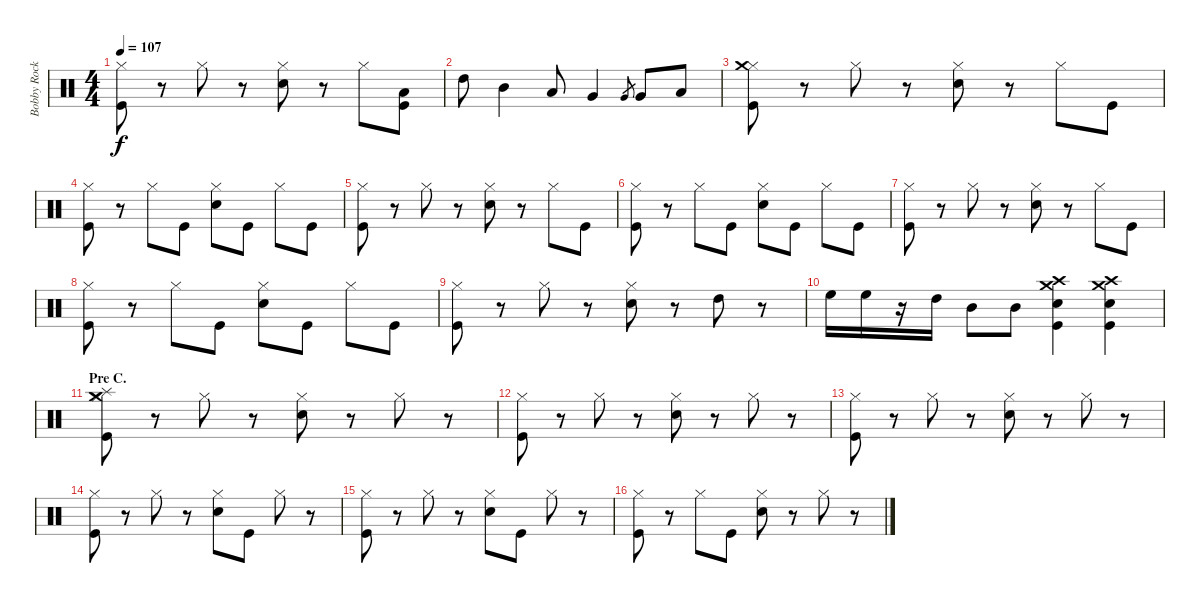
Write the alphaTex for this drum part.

\track ("Bobby Rock - drums" "Bobby Rock") {instrument percussion}
\staff {score}
\articulation defaults
\ts (4 4)
\tempo 107
\clef neutral
\ks c
("Hi-Hat (closed)" "Kick (hit)").8{dy f} r.8 "Hi-Hat (closed)".8 r.8 ("Hi-Hat (closed)" "Snare (hit) 2").8 r.8 "Hi-Hat (closed)".8 ("Low Tom (hit)" "Kick (hit)").8 |
"High Tom (hit)".8 "Mid Tom (hit)".4 "Low Tom (hit)".8 "Very Low Tom (hit)".4 "Very Low Tom (hit)".8{gr} "Very Low Tom (hit)".8 "Low Floor Tom (hit)".8 |
("Hi-Hat (closed)" "Crash medium (hit)" "Kick (hit)").8 r.8 "Hi-Hat (closed)".8 r.8 ("Hi-Hat (closed)" "Snare (hit) 2").8 r.8 "Hi-Hat (closed)".8 "Kick (hit)".8 |
("Hi-Hat (closed)" "Kick (hit)").8 r.8 "Hi-Hat (closed)".8 "Kick (hit)".8 ("Hi-Hat (closed)" "Snare (hit) 2").8 "Kick (hit)".8 "Hi-Hat (closed)".8 "Kick (hit)".8 |
("Hi-Hat (closed)" "Kick (hit)").8 r.8 "Hi-Hat (closed)".8 r.8 ("Hi-Hat (closed)" "Snare (hit) 2").8 r.8 "Hi-Hat (closed)".8 "Kick (hit)".8 |
("Hi-Hat (closed)" "Kick (hit)").8 r.8 "Hi-Hat (closed)".8 "Kick (hit)".8 ("Hi-Hat (closed)" "Snare (hit) 2").8 "Kick (hit)".8 "Hi-Hat (closed)".8 "Kick (hit)".8 |
("Hi-Hat (closed)" "Kick (hit)").8 r.8 "Hi-Hat (closed)".8 r.8 ("Hi-Hat (closed)" "Snare (hit) 2").8 r.8 "Hi-Hat (closed)".8 "Kick (hit)".8 |
("Hi-Hat (closed)" "Kick (hit)").8 r.8 "Hi-Hat (closed)".8 "Kick (hit)".8 ("Hi-Hat (closed)" "Snare (hit) 2").8 "Kick (hit)".8 "Hi-Hat (closed)".8 "Kick (hit)".8 |
("Hi-Hat (closed)" "Kick (hit)").8 r.8 "Hi-Hat (closed)".8 r.8 ("Hi-Hat (closed)" "Snare (hit) 2").8 r.8 "High Tom (hit)".8 r.8 |
"High Floor Tom (hit)".16 "High Floor Tom (hit)".16 r.16 "High Tom (hit)".16 "Mid Tom (hit)".8 "Mid Tom (hit)".8 ("Crash high (hit)" "Crash medium (hit)" "Snare (hit) 2" "Kick (hit)").4 ("Crash medium (hit)" "Crash high (hit)" "Snare (hit) 2" "Kick (hit)").4 |
\section ("" "Pre C.")
("Hi-Hat (closed)" "Splash (hit)" "Crash medium (hit)" "Kick (hit)").8 r.8 "Hi-Hat (closed)".8 r.8 ("Hi-Hat (closed)" "Snare (hit) 2").8 r.8 "Hi-Hat (closed)".8 r.8 |
("Hi-Hat (closed)" "Kick (hit)").8 r.8 "Hi-Hat (closed)".8 r.8 ("Hi-Hat (closed)" "Snare (hit) 2").8 r.8 "Hi-Hat (closed)".8 r.8 |
("Hi-Hat (closed)" "Kick (hit)").8 r.8 "Hi-Hat (closed)".8 r.8 ("Hi-Hat (closed)" "Snare (hit) 2").8 r.8 "Hi-Hat (closed)".8 r.8 |
("Hi-Hat (closed)" "Kick (hit)").8 r.8 "Hi-Hat (closed)".8 r.8 ("Hi-Hat (closed)" "Snare (hit) 2").8 "Kick (hit)".8 "Hi-Hat (closed)".8 r.8 |
("Hi-Hat (closed)" "Kick (hit)").8 r.8 "Hi-Hat (closed)".8 r.8 ("Hi-Hat (closed)" "Snare (hit) 2").8 "Kick (hit)".8 "Hi-Hat (closed)".8 r.8 |
("Hi-Hat (closed)" "Kick (hit)").8 r.8 "Hi-Hat (closed)".8 "Kick (hit)".8 ("Hi-Hat (closed)" "Snare (hit) 2").8 r.8 "Hi-Hat (closed)".8 r.8
